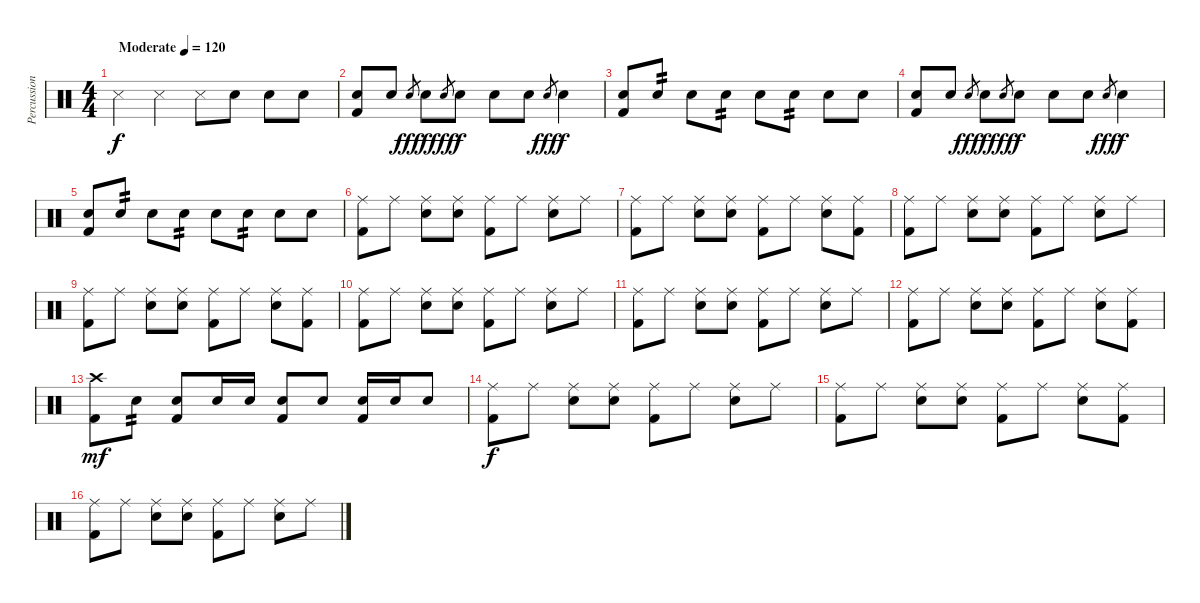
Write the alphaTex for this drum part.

\track ("Percussion" "Percussion") {instrument percussion}
\staff {score}
\articulation defaults
\ts (4 4)
\tempo (120 "Moderate")
\clef neutral
\ks c "Snare (side stick) 3".4{dy f} "Snare (side stick) 3".4 "Snare (side stick) 3".8 "Snare (hit) 2".8 "Snare (hit) 2".8 "Snare (hit) 2".8
|
("Snare (hit) 2" "Kick (hit) 2").8 "Snare (hit) 2".8 "Snare (hit) 2".8{gr dy fff} "Snare (hit) 2".8{dy f} "Snare (hit) 2".8{gr dy fff} "Snare (hit) 2".8{dy f} "Snare (hit) 2".8 "Snare (hit) 2".8 "Snare (hit) 2".8{gr dy fff} "Snare (hit) 2".4{dy f} |
("Snare (hit) 2" "Kick (hit) 2").8 "Snare (hit) 2".8{tp 2} "Snare (hit) 2".8 "Snare (hit) 2".8{tp 2} "Snare (hit) 2".8 "Snare (hit) 2".8{tp 2} "Snare (hit) 2".8 "Snare (hit) 2".8 |
("Snare (hit) 2" "Kick (hit) 2").8 "Snare (hit) 2".8 "Snare (hit) 2".8{gr dy fff} "Snare (hit) 2".8{dy f} "Snare (hit) 2".8{gr dy fff} "Snare (hit) 2".8{dy f} "Snare (hit) 2".8 "Snare (hit) 2".8 "Snare (hit) 2".8{gr dy fff} "Snare (hit) 2".4{dy f} |
("Snare (hit) 2" "Kick (hit) 2").8 "Snare (hit) 2".8{tp 2} "Snare (hit) 2".8 "Snare (hit) 2".8{tp 2} "Snare (hit) 2".8 "Snare (hit) 2".8{tp 2} "Snare (hit) 2".8 "Snare (hit) 2".8 |
("Ride (middle)" "Kick (hit) 2").8 "Ride (middle)".8 ("Ride (middle)" "Snare (hit) 2").8 ("Ride (middle)" "Snare (hit) 2").8 ("Ride (middle)" "Kick (hit) 2").8 "Ride (middle)".8 ("Ride (middle)" "Snare (hit) 2").8 "Ride (middle)".8 |
("Ride (middle)" "Kick (hit) 2").8 "Ride (middle)".8 ("Ride (middle)" "Snare (hit) 2").8 ("Ride (middle)" "Snare (hit) 2").8 ("Ride (middle)" "Kick (hit) 2").8 "Ride (middle)".8 ("Ride (middle)" "Snare (hit) 2").8 ("Ride (middle)" "Kick (hit) 2").8 |
("Ride (middle)" "Kick (hit) 2").8 "Ride (middle)".8 ("Ride (middle)" "Snare (hit) 2").8 ("Ride (middle)" "Snare (hit) 2").8 ("Ride (middle)" "Kick (hit) 2").8 "Ride (middle)".8 ("Ride (middle)" "Snare (hit) 2").8 "Ride (middle)".8 |
("Ride (middle)" "Kick (hit) 2").8 "Ride (middle)".8 ("Ride (middle)" "Snare (hit) 2").8 ("Ride (middle)" "Snare (hit) 2").8 ("Ride (middle)" "Kick (hit) 2").8 "Ride (middle)".8 ("Ride (middle)" "Snare (hit) 2").8 ("Ride (middle)" "Kick (hit) 2").8 |
("Ride (middle)" "Kick (hit) 2").8 "Ride (middle)".8 ("Ride (middle)" "Snare (hit) 2").8 ("Ride (middle)" "Snare (hit) 2").8 ("Ride (middle)" "Kick (hit) 2").8 "Ride (middle)".8 ("Ride (middle)" "Snare (hit) 2").8 "Ride (middle)".8 |
("Ride (middle)" "Kick (hit) 2").8 "Ride (middle)".8 ("Ride (middle)" "Snare (hit) 2").8 ("Ride (middle)" "Snare (hit) 2").8 ("Ride (middle)" "Kick (hit) 2").8 "Ride (middle)".8 ("Ride (middle)" "Snare (hit) 2").8 "Ride (middle)".8 |
("Ride (middle)" "Kick (hit) 2").8 "Ride (middle)".8 ("Ride (middle)" "Snare (hit) 2").8 ("Ride (middle)" "Snare (hit) 2").8 ("Ride (middle)" "Kick (hit) 2").8 "Ride (middle)".8 ("Ride (middle)" "Snare (hit) 2").8 ("Ride (middle)" "Kick (hit) 2").8 |
("Crash high (hit)" "Kick (hit) 2").8{dy mf} "Snare (hit) 2".8{tp 2} ("Snare (hit) 2" "Kick (hit) 2").8 "Snare (hit) 2".16 "Snare (hit) 2".16 ("Snare (hit) 2" "Kick (hit) 2").8 "Snare (hit) 2".8 ("Snare (hit) 2" "Kick (hit) 2").16 "Snare (hit) 2".16 "Snare (hit) 2".8 |
("Ride (middle)" "Kick (hit) 2").8{dy f} "Ride (middle)".8 ("Ride (middle)" "Snare (hit) 2").8 ("Ride (middle)" "Snare (hit) 2").8 ("Ride (middle)" "Kick (hit) 2").8 "Ride (middle)".8 ("Ride (middle)" "Snare (hit) 2").8 "Ride (middle)".8 |
("Ride (middle)" "Kick (hit) 2").8 "Ride (middle)".8 ("Ride (middle)" "Snare (hit) 2").8 ("Ride (middle)" "Snare (hit) 2").8 ("Ride (middle)" "Kick (hit) 2").8 "Ride (middle)".8 ("Ride (middle)" "Snare (hit) 2").8 ("Ride (middle)" "Kick (hit) 2").8 |
("Ride (middle)" "Kick (hit) 2").8 "Ride (middle)".8 ("Ride (middle)" "Snare (hit) 2").8 ("Ride (middle)" "Snare (hit) 2").8 ("Ride (middle)" "Kick (hit) 2").8 "Ride (middle)".8 ("Ride (middle)" "Snare (hit) 2").8 "Ride (middle)".8
